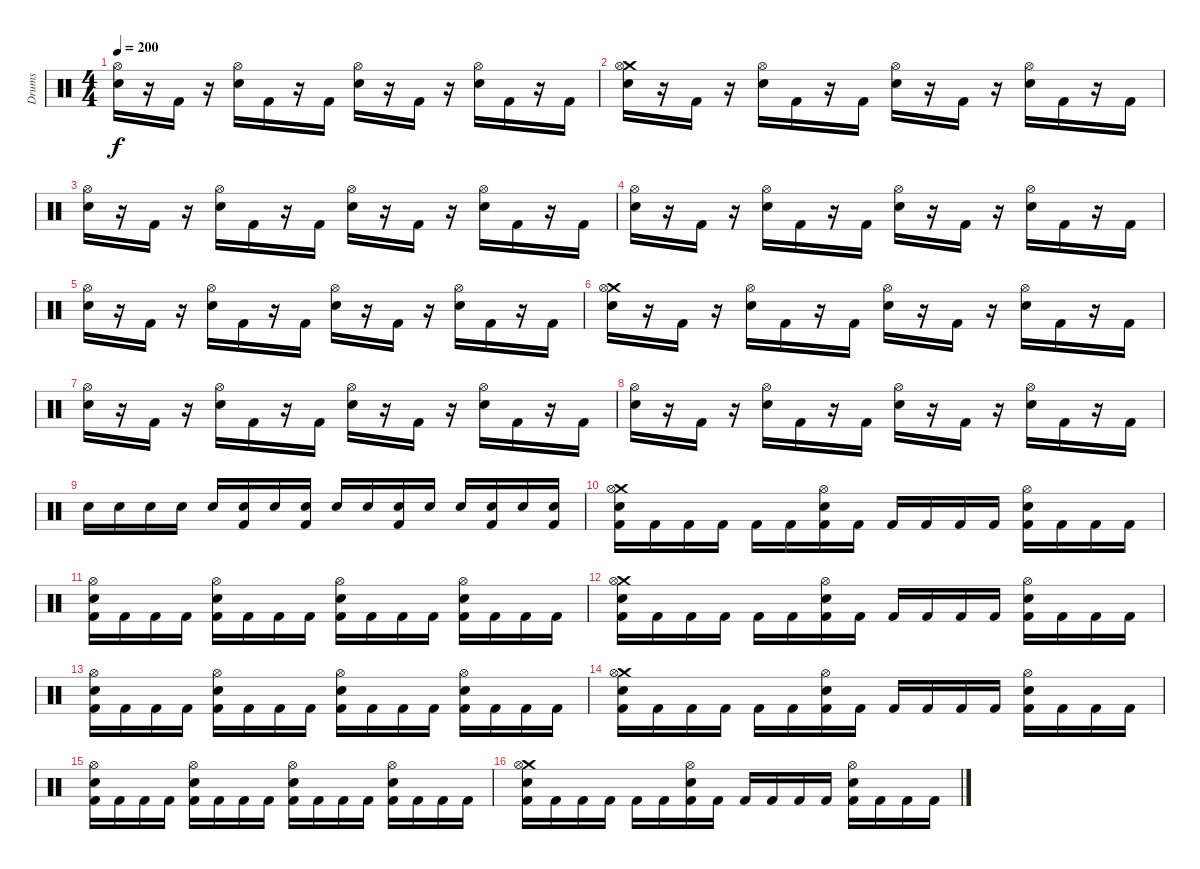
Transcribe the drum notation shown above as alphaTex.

\track ("Drums" "Drums") {instrument percussion}
\staff {score}
\articulation defaults
\ts (4 4)
\tempo 200
\clef neutral
\ks c
("Hi-Hat (open)" "Electric Snare (hit)").16{dy f} r.16 "Kick (hit) 2".16 r.16 ("Hi-Hat (open)" "Electric Snare (hit)").16 "Kick (hit) 2".16 r.16 "Kick (hit) 2".16 ("Hi-Hat (open)" "Electric Snare (hit)").16 r.16 "Kick (hit) 2".16 r.16 ("Hi-Hat (open)" "Electric Snare (hit)").16 "Kick (hit) 2".16 r.16 "Kick (hit) 2".16 |
("Crash medium (hit)" "Hi-Hat (open)" "Electric Snare (hit)").16 r.16 "Kick (hit) 2".16 r.16 ("Hi-Hat (open)" "Electric Snare (hit)").16 "Kick (hit) 2".16 r.16 "Kick (hit) 2".16 ("Hi-Hat (open)" "Electric Snare (hit)").16 r.16 "Kick (hit) 2".16 r.16 ("Hi-Hat (open)" "Electric Snare (hit)").16 "Kick (hit) 2".16 r.16 "Kick (hit) 2".16 |
("Hi-Hat (open)" "Electric Snare (hit)").16 r.16 "Kick (hit) 2".16 r.16 ("Hi-Hat (open)" "Electric Snare (hit)").16 "Kick (hit) 2".16 r.16 "Kick (hit) 2".16 ("Hi-Hat (open)" "Electric Snare (hit)").16 r.16 "Kick (hit) 2".16 r.16 ("Hi-Hat (open)" "Electric Snare (hit)").16 "Kick (hit) 2".16 r.16 "Kick (hit) 2".16 |
("Hi-Hat (open)" "Electric Snare (hit)").16 r.16 "Kick (hit) 2".16 r.16 ("Hi-Hat (open)" "Electric Snare (hit)").16 "Kick (hit) 2".16 r.16 "Kick (hit) 2".16 ("Hi-Hat (open)" "Electric Snare (hit)").16 r.16 "Kick (hit) 2".16 r.16 ("Hi-Hat (open)" "Electric Snare (hit)").16 "Kick (hit) 2".16 r.16 "Kick (hit) 2".16 |
("Hi-Hat (open)" "Electric Snare (hit)").16 r.16 "Kick (hit) 2".16 r.16 ("Hi-Hat (open)" "Electric Snare (hit)").16 "Kick (hit) 2".16 r.16 "Kick (hit) 2".16 ("Hi-Hat (open)" "Electric Snare (hit)").16 r.16 "Kick (hit) 2".16 r.16 ("Hi-Hat (open)" "Electric Snare (hit)").16 "Kick (hit) 2".16 r.16 "Kick (hit) 2".16 |
("Crash medium (hit)" "Hi-Hat (open)" "Electric Snare (hit)").16 r.16 "Kick (hit) 2".16 r.16 ("Hi-Hat (open)" "Electric Snare (hit)").16 "Kick (hit) 2".16 r.16 "Kick (hit) 2".16 ("Hi-Hat (open)" "Electric Snare (hit)").16 r.16 "Kick (hit) 2".16 r.16 ("Hi-Hat (open)" "Electric Snare (hit)").16 "Kick (hit) 2".16 r.16 "Kick (hit) 2".16 |
("Hi-Hat (open)" "Electric Snare (hit)").16 r.16 "Kick (hit) 2".16 r.16 ("Hi-Hat (open)" "Electric Snare (hit)").16 "Kick (hit) 2".16 r.16 "Kick (hit) 2".16 ("Hi-Hat (open)" "Electric Snare (hit)").16 r.16 "Kick (hit) 2".16 r.16 ("Hi-Hat (open)" "Electric Snare (hit)").16 "Kick (hit) 2".16 r.16 "Kick (hit) 2".16 |
("Hi-Hat (open)" "Electric Snare (hit)").16 r.16 "Kick (hit) 2".16 r.16 ("Hi-Hat (open)" "Electric Snare (hit)").16 "Kick (hit) 2".16 r.16 "Kick (hit) 2".16 ("Hi-Hat (open)" "Electric Snare (hit)").16 r.16 "Kick (hit) 2".16 r.16 ("Hi-Hat (open)" "Electric Snare (hit)").16 "Kick (hit) 2".16 r.16 "Kick (hit) 2".16 |
"Electric Snare (hit)".16 "Electric Snare (hit)".16 "Electric Snare (hit)".16 "Electric Snare (hit)".16 "Electric Snare (hit)".16 ("Electric Snare (hit)" "Kick (hit) 2").16 "Electric Snare (hit)".16 ("Electric Snare (hit)" "Kick (hit) 2").16 "Electric Snare (hit)".16 "Electric Snare (hit)".16 ("Electric Snare (hit)" "Kick (hit) 2").16 "Electric Snare (hit)".16 "Electric Snare (hit)".16 ("Electric Snare (hit)" "Kick (hit) 2").16 "Electric Snare (hit)".16 ("Electric Snare (hit)" "Kick (hit) 2").16 |
("Crash medium (hit)" "Hi-Hat (open)" "Electric Snare (hit)" "Kick (hit) 2").16 "Kick (hit) 2".16 "Kick (hit) 2".16 "Kick (hit) 2".16 "Kick (hit) 2".16 "Kick (hit) 2".16 ("Hi-Hat (open)" "Electric Snare (hit)" "Kick (hit) 2").16 "Kick (hit) 2".16 "Kick (hit) 2".16 "Kick (hit) 2".16 "Kick (hit) 2".16 "Kick (hit) 2".16 ("Hi-Hat (open)" "Electric Snare (hit)" "Kick (hit) 2").16 "Kick (hit) 2".16 "Kick (hit) 2".16 "Kick (hit) 2".16 |
("Hi-Hat (open)" "Electric Snare (hit)" "Kick (hit) 2").16 "Kick (hit) 2".16 "Kick (hit) 2".16 "Kick (hit) 2".16 ("Hi-Hat (open)" "Electric Snare (hit)" "Kick (hit) 2").16 "Kick (hit) 2".16 "Kick (hit) 2".16 "Kick (hit) 2".16 ("Hi-Hat (open)" "Electric Snare (hit)" "Kick (hit) 2").16 "Kick (hit) 2".16 "Kick (hit) 2".16 "Kick (hit) 2".16 ("Hi-Hat (open)" "Electric Snare (hit)" "Kick (hit) 2").16 "Kick (hit) 2".16 "Kick (hit) 2".16 "Kick (hit) 2".16 |
("Crash medium (hit)" "Hi-Hat (open)" "Electric Snare (hit)" "Kick (hit) 2").16 "Kick (hit) 2".16 "Kick (hit) 2".16 "Kick (hit) 2".16 "Kick (hit) 2".16 "Kick (hit) 2".16 ("Hi-Hat (open)" "Electric Snare (hit)" "Kick (hit) 2").16 "Kick (hit) 2".16 "Kick (hit) 2".16 "Kick (hit) 2".16 "Kick (hit) 2".16 "Kick (hit) 2".16 ("Hi-Hat (open)" "Electric Snare (hit)" "Kick (hit) 2").16 "Kick (hit) 2".16 "Kick (hit) 2".16 "Kick (hit) 2".16 |
("Hi-Hat (open)" "Electric Snare (hit)" "Kick (hit) 2").16 "Kick (hit) 2".16 "Kick (hit) 2".16 "Kick (hit) 2".16 ("Hi-Hat (open)" "Electric Snare (hit)" "Kick (hit) 2").16 "Kick (hit) 2".16 "Kick (hit) 2".16 "Kick (hit) 2".16 ("Hi-Hat (open)" "Electric Snare (hit)" "Kick (hit) 2").16 "Kick (hit) 2".16 "Kick (hit) 2".16 "Kick (hit) 2".16 ("Hi-Hat (open)" "Electric Snare (hit)" "Kick (hit) 2").16 "Kick (hit) 2".16 "Kick (hit) 2".16 "Kick (hit) 2".16 |
("Crash medium (hit)" "Hi-Hat (open)" "Electric Snare (hit)" "Kick (hit) 2").16 "Kick (hit) 2".16 "Kick (hit) 2".16 "Kick (hit) 2".16 "Kick (hit) 2".16 "Kick (hit) 2".16 ("Hi-Hat (open)" "Electric Snare (hit)" "Kick (hit) 2").16 "Kick (hit) 2".16 "Kick (hit) 2".16 "Kick (hit) 2".16 "Kick (hit) 2".16 "Kick (hit) 2".16 ("Hi-Hat (open)" "Electric Snare (hit)" "Kick (hit) 2").16 "Kick (hit) 2".16 "Kick (hit) 2".16 "Kick (hit) 2".16 |
("Hi-Hat (open)" "Electric Snare (hit)" "Kick (hit) 2").16 "Kick (hit) 2".16 "Kick (hit) 2".16 "Kick (hit) 2".16 ("Hi-Hat (open)" "Electric Snare (hit)" "Kick (hit) 2").16 "Kick (hit) 2".16 "Kick (hit) 2".16 "Kick (hit) 2".16 ("Hi-Hat (open)" "Electric Snare (hit)" "Kick (hit) 2").16 "Kick (hit) 2".16 "Kick (hit) 2".16 "Kick (hit) 2".16 ("Hi-Hat (open)" "Electric Snare (hit)" "Kick (hit) 2").16 "Kick (hit) 2".16 "Kick (hit) 2".16 "Kick (hit) 2".16 |
("Crash medium (hit)" "Hi-Hat (open)" "Electric Snare (hit)" "Kick (hit) 2").16 "Kick (hit) 2".16 "Kick (hit) 2".16 "Kick (hit) 2".16 "Kick (hit) 2".16 "Kick (hit) 2".16 ("Hi-Hat (open)" "Electric Snare (hit)" "Kick (hit) 2").16 "Kick (hit) 2".16 "Kick (hit) 2".16 "Kick (hit) 2".16 "Kick (hit) 2".16 "Kick (hit) 2".16 ("Hi-Hat (open)" "Electric Snare (hit)" "Kick (hit) 2").16 "Kick (hit) 2".16 "Kick (hit) 2".16 "Kick (hit) 2".16
